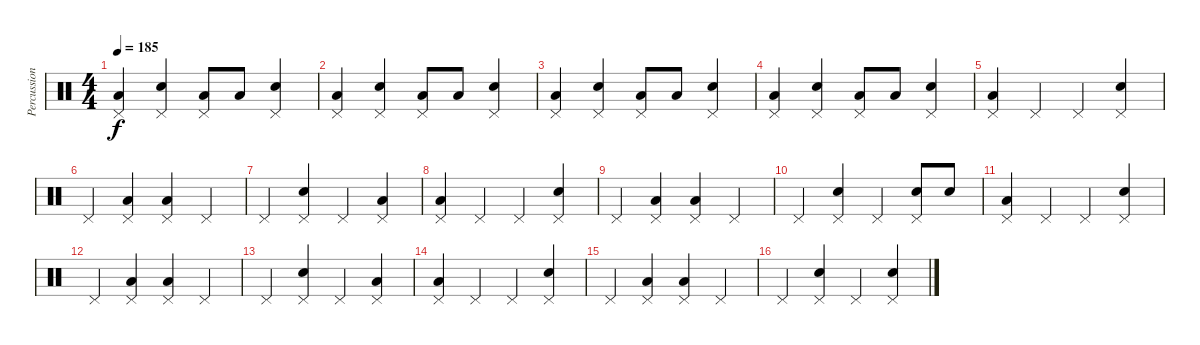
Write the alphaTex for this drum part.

\track ("Percussion" "Percussion") {instrument percussion}
\staff {score}
\articulation defaults
\ts (4 4)
\tempo 185
\clef neutral
\ks c
("Pedal Hi-Hat (hit)" "Low Tom (hit)").4{dy f} ("Pedal Hi-Hat (hit)" "Snare (hit) 2").4 ("Pedal Hi-Hat (hit)" "Low Tom (hit)").8 "Low Tom (hit)".8 ("Pedal Hi-Hat (hit)" "Snare (hit) 2").4 |
("Pedal Hi-Hat (hit)" "Low Tom (hit)").4 ("Pedal Hi-Hat (hit)" "Snare (hit) 2").4 ("Pedal Hi-Hat (hit)" "Low Tom (hit)").8 "Low Tom (hit)".8 ("Pedal Hi-Hat (hit)" "Snare (hit) 2").4 |
("Pedal Hi-Hat (hit)" "Low Tom (hit)").4 ("Pedal Hi-Hat (hit)" "Snare (hit) 2").4 ("Pedal Hi-Hat (hit)" "Low Tom (hit)").8 "Low Tom (hit)".8 ("Pedal Hi-Hat (hit)" "Snare (hit) 2").4 |
("Pedal Hi-Hat (hit)" "Low Tom (hit)").4 ("Pedal Hi-Hat (hit)" "Snare (hit) 2").4 ("Pedal Hi-Hat (hit)" "Low Tom (hit)").8 "Low Tom (hit)".8 ("Pedal Hi-Hat (hit)" "Snare (hit) 2").4 |
("Pedal Hi-Hat (hit)" "Low Tom (hit)").4 "Pedal Hi-Hat (hit)".4 "Pedal Hi-Hat (hit)".4 ("Pedal Hi-Hat (hit)" "Snare (hit) 2").4 |
"Pedal Hi-Hat (hit)".4 ("Pedal Hi-Hat (hit)" "Low Tom (hit)").4 ("Pedal Hi-Hat (hit)" "Low Tom (hit)").4 "Pedal Hi-Hat (hit)".4 |
"Pedal Hi-Hat (hit)".4 ("Pedal Hi-Hat (hit)" "Snare (hit) 2").4 "Pedal Hi-Hat (hit)".4 ("Pedal Hi-Hat (hit)" "Low Tom (hit)").4 |
("Pedal Hi-Hat (hit)" "Low Tom (hit)").4 "Pedal Hi-Hat (hit)".4 "Pedal Hi-Hat (hit)".4 ("Pedal Hi-Hat (hit)" "Snare (hit) 2").4 |
"Pedal Hi-Hat (hit)".4 ("Pedal Hi-Hat (hit)" "Low Tom (hit)").4 ("Pedal Hi-Hat (hit)" "Low Tom (hit)").4 "Pedal Hi-Hat (hit)".4 |
"Pedal Hi-Hat (hit)".4 ("Pedal Hi-Hat (hit)" "Snare (hit) 2").4 "Pedal Hi-Hat (hit)".4 ("Pedal Hi-Hat (hit)" "Snare (hit) 2").8 "Snare (hit) 2".8 |
("Pedal Hi-Hat (hit)" "Low Tom (hit)").4 "Pedal Hi-Hat (hit)".4 "Pedal Hi-Hat (hit)".4 ("Pedal Hi-Hat (hit)" "Snare (hit) 2").4 |
"Pedal Hi-Hat (hit)".4 ("Pedal Hi-Hat (hit)" "Low Tom (hit)").4 ("Pedal Hi-Hat (hit)" "Low Tom (hit)").4 "Pedal Hi-Hat (hit)".4 |
"Pedal Hi-Hat (hit)".4 ("Pedal Hi-Hat (hit)" "Snare (hit) 2").4 "Pedal Hi-Hat (hit)".4 ("Pedal Hi-Hat (hit)" "Low Tom (hit)").4 |
("Pedal Hi-Hat (hit)" "Low Tom (hit)").4 "Pedal Hi-Hat (hit)".4 "Pedal Hi-Hat (hit)".4 ("Pedal Hi-Hat (hit)" "Snare (hit) 2").4 |
"Pedal Hi-Hat (hit)".4 ("Pedal Hi-Hat (hit)" "Low Tom (hit)").4 ("Pedal Hi-Hat (hit)" "Low Tom (hit)").4 "Pedal Hi-Hat (hit)".4 |
"Pedal Hi-Hat (hit)".4 ("Pedal Hi-Hat (hit)" "Snare (hit) 2").4 "Pedal Hi-Hat (hit)".4 ("Pedal Hi-Hat (hit)" "Snare (hit) 2").4
